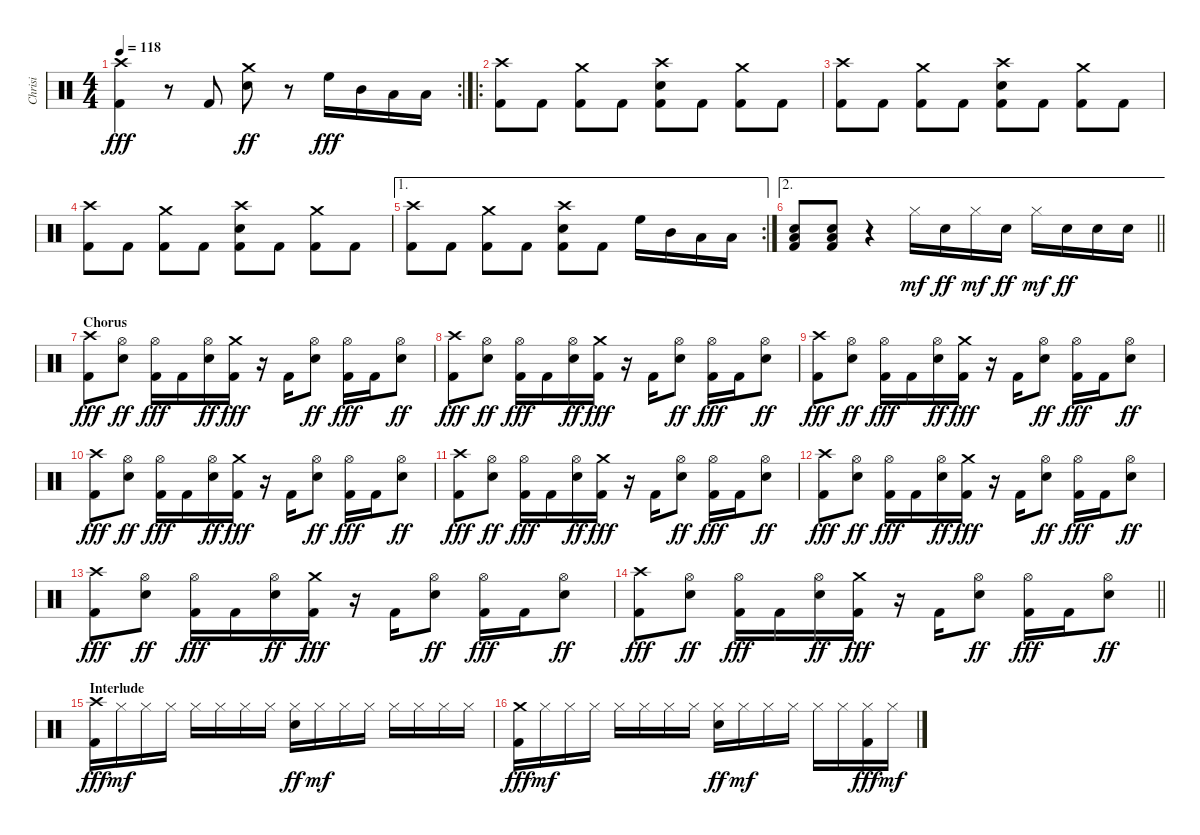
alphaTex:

\track ("Chrisi" "Chrisi") {instrument percussion}
\staff {score}
\articulation defaults
\rc 2
\ts (4 4)
\tempo 118
\clef neutral
\ks c
("Crash high (hit)" "Kick (hit) 2").4{dy fff} r.8 "Kick (hit) 2".8 ("Crash medium (hit)" "Electric Snare (hit)").8{dy ff} r.8 "High Floor Tom (hit)".16{dy fff} "Mid Tom (hit)".16 "Low Floor Tom (hit)".16 "Low Floor Tom (hit)".16 |
\ro
("Crash high (hit)" "Kick (hit) 2").8 "Kick (hit) 2".8 ("Crash medium (hit)" "Kick (hit) 2").8 "Kick (hit) 2".8 ("Crash high (hit)" "Electric Snare (hit)" "Kick (hit) 2").8 "Kick (hit) 2".8 ("Crash medium (hit)" "Kick (hit) 2").8 "Kick (hit) 2".8 |
("Crash high (hit)" "Kick (hit) 2").8 "Kick (hit) 2".8 ("Crash medium (hit)" "Kick (hit) 2").8 "Kick (hit) 2".8 ("Crash high (hit)" "Electric Snare (hit)" "Kick (hit) 2").8 "Kick (hit) 2".8 ("Crash medium (hit)" "Kick (hit) 2").8 "Kick (hit) 2".8 |
("Crash high (hit)" "Kick (hit) 2").8 "Kick (hit) 2".8 ("Crash medium (hit)" "Kick (hit) 2").8 "Kick (hit) 2".8 ("Crash high (hit)" "Electric Snare (hit)" "Kick (hit) 2").8 "Kick (hit) 2".8 ("Crash medium (hit)" "Kick (hit) 2").8 "Kick (hit) 2".8 |
\ae 1
\rc 2
("Crash high (hit)" "Kick (hit) 2").8 "Kick (hit) 2".8 ("Crash medium (hit)" "Kick (hit) 2").8 "Kick (hit) 2".8 ("Crash high (hit)" "Electric Snare (hit)" "Kick (hit) 2").8 "Kick (hit) 2".8 "High Floor Tom (hit)".16 "Mid Tom (hit)".16 "Low Floor Tom (hit)".16 "Low Floor Tom (hit)".16 |
\ae 2
\barLineRight lightlight
("Low Floor Tom (hit)" "Electric Snare (hit)" "Kick (hit) 2").8 ("Low Floor Tom (hit)" "Electric Snare (hit)" "Kick (hit) 2").8 r.4 "Hi-Hat (closed)".16{dy mf} "Electric Snare (hit)".16{dy ff} "Hi-Hat (closed)".16{dy mf} "Electric Snare (hit)".16{dy ff} "Hi-Hat (closed)".16{dy mf} "Electric Snare (hit)".16{dy ff} "Electric Snare (hit)".16 "Electric Snare (hit)".16 |
\section ("" "Chorus")
("Crash high (hit)" "Kick (hit) 2").8{dy fff} ("Hi-Hat (open)" "Electric Snare (hit)").8{dy ff} ("Hi-Hat (open)" "Kick (hit) 2").16{dy fff} "Kick (hit) 2".16 ("Hi-Hat (open)" "Electric Snare (hit)").16{dy ff} ("Crash medium (hit)" "Kick (hit) 2").16{dy fff} r.16 "Kick (hit) 2".16 ("Hi-Hat (open)" "Electric Snare (hit)").8{dy ff} ("Hi-Hat (open)" "Kick (hit) 2").16{dy fff} "Kick (hit) 2".16 ("Hi-Hat (open)" "Electric Snare (hit)").8{dy ff} |
("Crash high (hit)" "Kick (hit) 2").8{dy fff} ("Hi-Hat (open)" "Electric Snare (hit)").8{dy ff} ("Hi-Hat (open)" "Kick (hit) 2").16{dy fff} "Kick (hit) 2".16 ("Hi-Hat (open)" "Electric Snare (hit)").16{dy ff} ("Crash medium (hit)" "Kick (hit) 2").16{dy fff} r.16 "Kick (hit) 2".16 ("Hi-Hat (open)" "Electric Snare (hit)").8{dy ff} ("Hi-Hat (open)" "Kick (hit) 2").16{dy fff} "Kick (hit) 2".16 ("Hi-Hat (open)" "Electric Snare (hit)").8{dy ff} |
("Crash high (hit)" "Kick (hit) 2").8{dy fff} ("Hi-Hat (open)" "Electric Snare (hit)").8{dy ff} ("Hi-Hat (open)" "Kick (hit) 2").16{dy fff} "Kick (hit) 2".16 ("Hi-Hat (open)" "Electric Snare (hit)").16{dy ff} ("Crash medium (hit)" "Kick (hit) 2").16{dy fff} r.16 "Kick (hit) 2".16 ("Hi-Hat (open)" "Electric Snare (hit)").8{dy ff} ("Hi-Hat (open)" "Kick (hit) 2").16{dy fff} "Kick (hit) 2".16 ("Hi-Hat (open)" "Electric Snare (hit)").8{dy ff} |
("Crash high (hit)" "Kick (hit) 2").8{dy fff} ("Hi-Hat (open)" "Electric Snare (hit)").8{dy ff} ("Hi-Hat (open)" "Kick (hit) 2").16{dy fff} "Kick (hit) 2".16 ("Hi-Hat (open)" "Electric Snare (hit)").16{dy ff} ("Crash medium (hit)" "Kick (hit) 2").16{dy fff} r.16 "Kick (hit) 2".16 ("Hi-Hat (open)" "Electric Snare (hit)").8{dy ff} ("Hi-Hat (open)" "Kick (hit) 2").16{dy fff} "Kick (hit) 2".16 ("Hi-Hat (open)" "Electric Snare (hit)").8{dy ff} |
("Crash high (hit)" "Kick (hit) 2").8{dy fff} ("Hi-Hat (open)" "Electric Snare (hit)").8{dy ff} ("Hi-Hat (open)" "Kick (hit) 2").16{dy fff} "Kick (hit) 2".16 ("Hi-Hat (open)" "Electric Snare (hit)").16{dy ff} ("Crash medium (hit)" "Kick (hit) 2").16{dy fff} r.16 "Kick (hit) 2".16 ("Hi-Hat (open)" "Electric Snare (hit)").8{dy ff} ("Hi-Hat (open)" "Kick (hit) 2").16{dy fff} "Kick (hit) 2".16 ("Hi-Hat (open)" "Electric Snare (hit)").8{dy ff} |
("Crash high (hit)" "Kick (hit) 2").8{dy fff} ("Hi-Hat (open)" "Electric Snare (hit)").8{dy ff} ("Hi-Hat (open)" "Kick (hit) 2").16{dy fff} "Kick (hit) 2".16 ("Hi-Hat (open)" "Electric Snare (hit)").16{dy ff} ("Crash medium (hit)" "Kick (hit) 2").16{dy fff} r.16 "Kick (hit) 2".16 ("Hi-Hat (open)" "Electric Snare (hit)").8{dy ff} ("Hi-Hat (open)" "Kick (hit) 2").16{dy fff} "Kick (hit) 2".16 ("Hi-Hat (open)" "Electric Snare (hit)").8{dy ff} |
("Crash high (hit)" "Kick (hit) 2").8{dy fff} ("Hi-Hat (open)" "Electric Snare (hit)").8{dy ff} ("Hi-Hat (open)" "Kick (hit) 2").16{dy fff} "Kick (hit) 2".16 ("Hi-Hat (open)" "Electric Snare (hit)").16{dy ff} ("Crash medium (hit)" "Kick (hit) 2").16{dy fff} r.16 "Kick (hit) 2".16 ("Hi-Hat (open)" "Electric Snare (hit)").8{dy ff} ("Hi-Hat (open)" "Kick (hit) 2").16{dy fff} "Kick (hit) 2".16 ("Hi-Hat (open)" "Electric Snare (hit)").8{dy ff} |
\barLineRight lightlight
("Crash high (hit)" "Kick (hit) 2").8{dy fff} ("Hi-Hat (open)" "Electric Snare (hit)").8{dy ff} ("Hi-Hat (open)" "Kick (hit) 2").16{dy fff} "Kick (hit) 2".16 ("Hi-Hat (open)" "Electric Snare (hit)").16{dy ff} ("Crash medium (hit)" "Kick (hit) 2").16{dy fff} r.16 "Kick (hit) 2".16 ("Hi-Hat (open)" "Electric Snare (hit)").8{dy ff} ("Hi-Hat (open)" "Kick (hit) 2").16{dy fff} "Kick (hit) 2".16 ("Hi-Hat (open)" "Electric Snare (hit)").8{dy ff} |
\section ("" "Interlude")
("Crash high (hit)" "Kick (hit) 2").16{dy fff} "Hi-Hat (closed)".16{dy mf} "Hi-Hat (closed)".16 "Hi-Hat (closed)".16 "Hi-Hat (closed)".16 "Hi-Hat (closed)".16 "Hi-Hat (closed)".16 "Hi-Hat (closed)".16 ("Hi-Hat (closed)" "Electric Snare (hit)").16{dy ff} "Hi-Hat (closed)".16{dy mf} "Hi-Hat (closed)".16 "Hi-Hat (closed)".16 "Hi-Hat (closed)".16 "Hi-Hat (closed)".16 "Hi-Hat (closed)".16 "Hi-Hat (closed)".16 |
("Crash medium (hit)" "Kick (hit) 2").16{dy fff} "Hi-Hat (closed)".16{dy mf} "Hi-Hat (closed)".16 "Hi-Hat (closed)".16 "Hi-Hat (closed)".16 "Hi-Hat (closed)".16 "Hi-Hat (closed)".16 "Hi-Hat (closed)".16 ("Hi-Hat (closed)" "Electric Snare (hit)").16{dy ff} "Hi-Hat (closed)".16{dy mf} "Hi-Hat (closed)".16 "Hi-Hat (closed)".16 "Hi-Hat (closed)".16 "Hi-Hat (closed)".16 ("Hi-Hat (closed)" "Kick (hit) 2").16{dy fff} "Hi-Hat (closed)".16{dy mf}
